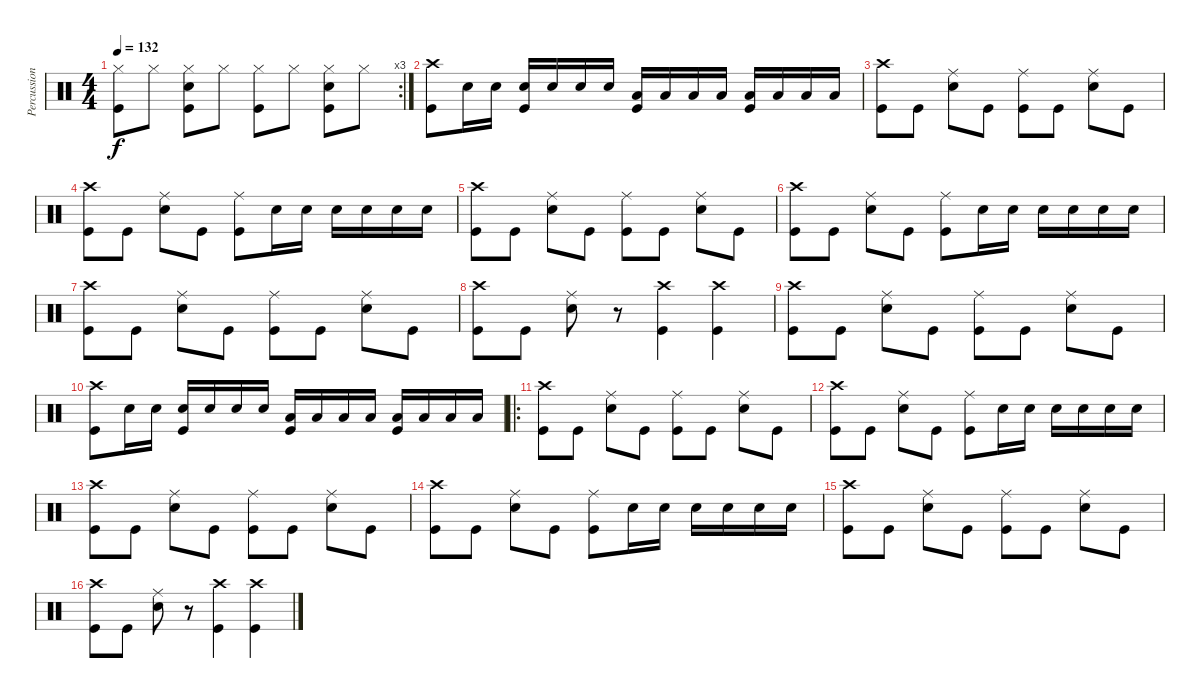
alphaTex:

\track ("Percussioni" "Percussion") {instrument percussion}
\staff {score}
\articulation defaults
\rc 3
\ts (4 4)
\tempo 132
\clef neutral
\ks c
("Hi-Hat (closed)" "Kick (hit)").8{dy f} "Hi-Hat (closed)".8 ("Hi-Hat (closed)" "Snare (hit) 2" "Kick (hit)").8 "Hi-Hat (closed)".8 ("Hi-Hat (closed)" "Kick (hit)").8 "Hi-Hat (closed)".8 ("Hi-Hat (closed)" "Snare (hit) 2" "Kick (hit)").8 "Hi-Hat (closed)".8 |
("Crash high (hit)" "Kick (hit)").8 "Snare (hit) 2".16 "Snare (hit) 2".16 ("Snare (hit) 2" "Kick (hit)").16 "Snare (hit) 2".16 "Snare (hit) 2".16 "Snare (hit) 2".16 ("Low Tom (hit)" "Kick (hit)").16 "Low Tom (hit)".16 "Low Tom (hit)".16 "Low Tom (hit)".16 ("Low Tom (hit)" "Kick (hit)").16 "Low Tom (hit)".16 "Low Tom (hit)".16 "Low Tom (hit)".16 |
("Crash high (hit)" "Kick (hit)").8 "Kick (hit)".8 ("Ride (middle)" "Snare (hit) 2").8 "Kick (hit)".8 ("Ride (middle)" "Kick (hit)").8 "Kick (hit)".8 ("Ride (middle)" "Snare (hit) 2").8 "Kick (hit)".8 |
("Crash high (hit)" "Kick (hit)").8 "Kick (hit)".8 ("Ride (middle)" "Snare (hit) 2").8 "Kick (hit)".8 ("Ride (middle)" "Kick (hit)").8 "Snare (hit) 2".16 "Snare (hit) 2".16 "Snare (hit) 2".16 "Snare (hit) 2".16 "Snare (hit) 2".16 "Snare (hit) 2".16 |
("Crash high (hit)" "Kick (hit)").8 "Kick (hit)".8 ("Ride (middle)" "Snare (hit) 2").8 "Kick (hit)".8 ("Ride (middle)" "Kick (hit)").8 "Kick (hit)".8 ("Ride (middle)" "Snare (hit) 2").8 "Kick (hit)".8 |
("Crash high (hit)" "Kick (hit)").8 "Kick (hit)".8 ("Ride (middle)" "Snare (hit) 2").8 "Kick (hit)".8 ("Ride (middle)" "Kick (hit)").8 "Snare (hit) 2".16 "Snare (hit) 2".16 "Snare (hit) 2".16 "Snare (hit) 2".16 "Snare (hit) 2".16 "Snare (hit) 2".16 |
("Crash high (hit)" "Kick (hit)").8 "Kick (hit)".8 ("Ride (middle)" "Snare (hit) 2").8 "Kick (hit)".8 ("Ride (middle)" "Kick (hit)").8 "Kick (hit)".8 ("Ride (middle)" "Snare (hit) 2").8 "Kick (hit)".8 |
("Crash high (hit)" "Kick (hit)").8 "Kick (hit)".8 ("Ride (middle)" "Snare (hit) 2").8 r.8 ("Crash high (hit)" "Kick (hit)").4 ("Crash high (hit)" "Kick (hit)").4 |
("Crash high (hit)" "Kick (hit)").8 "Kick (hit)".8 ("Ride (middle)" "Snare (hit) 2").8 "Kick (hit)".8 ("Ride (middle)" "Kick (hit)").8 "Kick (hit)".8 ("Ride (middle)" "Snare (hit) 2").8 "Kick (hit)".8 |
("Crash high (hit)" "Kick (hit)").8 "Snare (hit) 2".16 "Snare (hit) 2".16 ("Snare (hit) 2" "Kick (hit)").16 "Snare (hit) 2".16 "Snare (hit) 2".16 "Snare (hit) 2".16 ("Low Tom (hit)" "Kick (hit)").16 "Low Tom (hit)".16 "Low Tom (hit)".16 "Low Tom (hit)".16 ("Low Tom (hit)" "Kick (hit)").16 "Low Tom (hit)".16 "Low Tom (hit)".16 "Low Tom (hit)".16 |
\ro
("Crash high (hit)" "Kick (hit)").8 "Kick (hit)".8 ("Ride (middle)" "Snare (hit) 2").8 "Kick (hit)".8 ("Ride (middle)" "Kick (hit)").8 "Kick (hit)".8 ("Ride (middle)" "Snare (hit) 2").8 "Kick (hit)".8 |
("Crash high (hit)" "Kick (hit)").8 "Kick (hit)".8 ("Ride (middle)" "Snare (hit) 2").8 "Kick (hit)".8 ("Ride (middle)" "Kick (hit)").8 "Snare (hit) 2".16 "Snare (hit) 2".16 "Snare (hit) 2".16 "Snare (hit) 2".16 "Snare (hit) 2".16 "Snare (hit) 2".16 |
("Crash high (hit)" "Kick (hit)").8 "Kick (hit)".8 ("Ride (middle)" "Snare (hit) 2").8 "Kick (hit)".8 ("Ride (middle)" "Kick (hit)").8 "Kick (hit)".8 ("Ride (middle)" "Snare (hit) 2").8 "Kick (hit)".8 |
("Crash high (hit)" "Kick (hit)").8 "Kick (hit)".8 ("Ride (middle)" "Snare (hit) 2").8 "Kick (hit)".8 ("Ride (middle)" "Kick (hit)").8 "Snare (hit) 2".16 "Snare (hit) 2".16 "Snare (hit) 2".16 "Snare (hit) 2".16 "Snare (hit) 2".16 "Snare (hit) 2".16 |
("Crash high (hit)" "Kick (hit)").8 "Kick (hit)".8 ("Ride (middle)" "Snare (hit) 2").8 "Kick (hit)".8 ("Ride (middle)" "Kick (hit)").8 "Kick (hit)".8 ("Ride (middle)" "Snare (hit) 2").8 "Kick (hit)".8 |
("Crash high (hit)" "Kick (hit)").8 "Kick (hit)".8 ("Ride (middle)" "Snare (hit) 2").8 r.8 ("Crash high (hit)" "Kick (hit)").4 ("Crash high (hit)" "Kick (hit)").4
